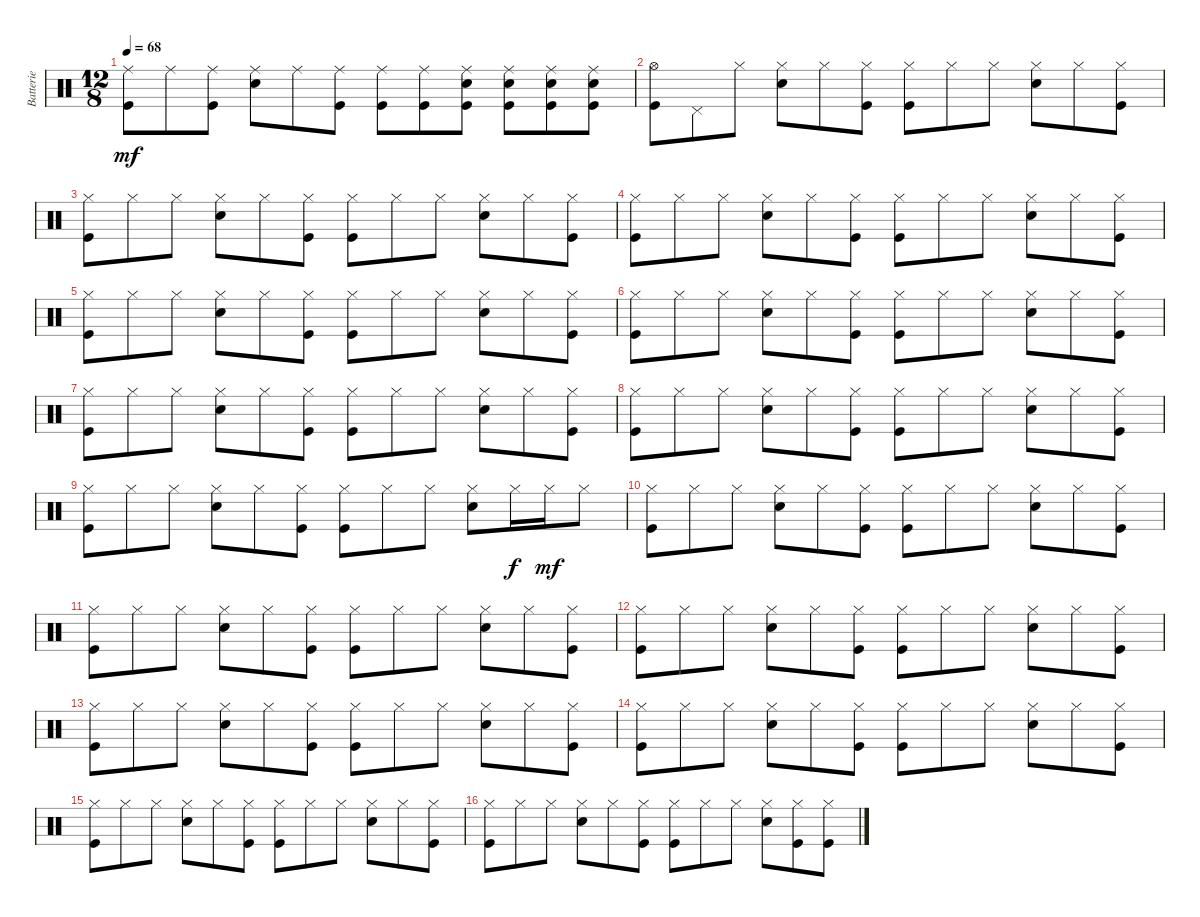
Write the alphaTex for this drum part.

\track ("Batterie" "Batterie") {instrument percussion}
\staff {score}
\articulation defaults
\ts (12 8)
\tempo 68
\clef neutral
\ks c
("Ride (middle)" "Kick (hit)").8{dy mf} "Ride (middle)".8 ("Ride (middle)" "Kick (hit)").8 ("Ride (middle)" "Snare (hit) 2").8 "Ride (middle)".8 ("Ride (middle)" "Kick (hit)").8 ("Ride (middle)" "Kick (hit)").8 ("Ride (middle)" "Kick (hit)").8 ("Ride (middle)" "Snare (hit) 2" "Kick (hit)").8 ("Ride (middle)" "Kick (hit)" "Snare (hit) 2").8 ("Ride (middle)" "Kick (hit)" "Snare (hit) 2").8 ("Ride (middle)" "Snare (hit) 2" "Kick (hit)").8 |
("Hi-Hat (open)" "Kick (hit)").8 "Pedal Hi-Hat (hit)".8 "Hi-Hat (closed)".8 ("Hi-Hat (closed)" "Snare (hit) 2").8 "Hi-Hat (closed)".8 ("Hi-Hat (closed)" "Kick (hit)").8 ("Hi-Hat (closed)" "Kick (hit)").8 "Hi-Hat (closed)".8 "Hi-Hat (closed)".8 ("Hi-Hat (closed)" "Snare (hit) 2").8 "Hi-Hat (closed)".8 ("Hi-Hat (closed)" "Kick (hit)").8 |
("Hi-Hat (closed)" "Kick (hit)").8 "Hi-Hat (closed)".8 "Hi-Hat (closed)".8 ("Hi-Hat (closed)" "Snare (hit) 2").8 "Hi-Hat (closed)".8 ("Hi-Hat (closed)" "Kick (hit)").8 ("Hi-Hat (closed)" "Kick (hit)").8 "Hi-Hat (closed)".8 "Hi-Hat (closed)".8 ("Hi-Hat (closed)" "Snare (hit) 2").8 "Hi-Hat (closed)".8 ("Hi-Hat (closed)" "Kick (hit)").8 |
("Hi-Hat (closed)" "Kick (hit)").8 "Hi-Hat (closed)".8 "Hi-Hat (closed)".8 ("Hi-Hat (closed)" "Snare (hit) 2").8 "Hi-Hat (closed)".8 ("Hi-Hat (closed)" "Kick (hit)").8 ("Hi-Hat (closed)" "Kick (hit)").8 "Hi-Hat (closed)".8 "Hi-Hat (closed)".8 ("Hi-Hat (closed)" "Snare (hit) 2").8 "Hi-Hat (closed)".8 ("Hi-Hat (closed)" "Kick (hit)").8 |
("Hi-Hat (closed)" "Kick (hit)").8 "Hi-Hat (closed)".8 "Hi-Hat (closed)".8 ("Hi-Hat (closed)" "Snare (hit) 2").8 "Hi-Hat (closed)".8 ("Hi-Hat (closed)" "Kick (hit)").8 ("Hi-Hat (closed)" "Kick (hit)").8 "Hi-Hat (closed)".8 "Hi-Hat (closed)".8 ("Hi-Hat (closed)" "Snare (hit) 2").8 "Hi-Hat (closed)".8 ("Hi-Hat (closed)" "Kick (hit)").8 |
("Hi-Hat (closed)" "Kick (hit)").8 "Hi-Hat (closed)".8 "Hi-Hat (closed)".8 ("Hi-Hat (closed)" "Snare (hit) 2").8 "Hi-Hat (closed)".8 ("Hi-Hat (closed)" "Kick (hit)").8 ("Hi-Hat (closed)" "Kick (hit)").8 "Hi-Hat (closed)".8 "Hi-Hat (closed)".8 ("Hi-Hat (closed)" "Snare (hit) 2").8 "Hi-Hat (closed)".8 ("Hi-Hat (closed)" "Kick (hit)").8 |
("Hi-Hat (closed)" "Kick (hit)").8 "Hi-Hat (closed)".8 "Hi-Hat (closed)".8 ("Hi-Hat (closed)" "Snare (hit) 2").8 "Hi-Hat (closed)".8 ("Hi-Hat (closed)" "Kick (hit)").8 ("Hi-Hat (closed)" "Kick (hit)").8 "Hi-Hat (closed)".8 "Hi-Hat (closed)".8 ("Hi-Hat (closed)" "Snare (hit) 2").8 "Hi-Hat (closed)".8 ("Hi-Hat (closed)" "Kick (hit)").8 |
("Hi-Hat (closed)" "Kick (hit)").8 "Hi-Hat (closed)".8 "Hi-Hat (closed)".8 ("Hi-Hat (closed)" "Snare (hit) 2").8 "Hi-Hat (closed)".8 ("Hi-Hat (closed)" "Kick (hit)").8 ("Hi-Hat (closed)" "Kick (hit)").8 "Hi-Hat (closed)".8 "Hi-Hat (closed)".8 ("Hi-Hat (closed)" "Snare (hit) 2").8 "Hi-Hat (closed)".8 ("Hi-Hat (closed)" "Kick (hit)").8 |
("Hi-Hat (closed)" "Kick (hit)").8 "Hi-Hat (closed)".8 "Hi-Hat (closed)".8 ("Hi-Hat (closed)" "Snare (hit) 2").8 "Hi-Hat (closed)".8 ("Hi-Hat (closed)" "Kick (hit)").8 ("Hi-Hat (closed)" "Kick (hit)").8 "Hi-Hat (closed)".8 "Hi-Hat (closed)".8 ("Hi-Hat (closed)" "Snare (hit) 2").8 "Hi-Hat (closed)".16{dy f} "Hi-Hat (closed)".16{dy mf} "Hi-Hat (closed)".8 |
("Hi-Hat (closed)" "Kick (hit)").8 "Hi-Hat (closed)".8 "Hi-Hat (closed)".8 ("Hi-Hat (closed)" "Snare (hit) 2").8 "Hi-Hat (closed)".8 ("Hi-Hat (closed)" "Kick (hit)").8 ("Hi-Hat (closed)" "Kick (hit)").8 "Hi-Hat (closed)".8 "Hi-Hat (closed)".8 ("Hi-Hat (closed)" "Snare (hit) 2").8 "Hi-Hat (closed)".8 ("Hi-Hat (closed)" "Kick (hit)").8 |
("Hi-Hat (closed)" "Kick (hit)").8 "Hi-Hat (closed)".8 "Hi-Hat (closed)".8 ("Hi-Hat (closed)" "Snare (hit) 2").8 "Hi-Hat (closed)".8 ("Hi-Hat (closed)" "Kick (hit)").8 ("Hi-Hat (closed)" "Kick (hit)").8 "Hi-Hat (closed)".8 "Hi-Hat (closed)".8 ("Hi-Hat (closed)" "Snare (hit) 2").8 "Hi-Hat (closed)".8 ("Hi-Hat (closed)" "Kick (hit)").8 |
("Hi-Hat (closed)" "Kick (hit)").8 "Hi-Hat (closed)".8 "Hi-Hat (closed)".8 ("Hi-Hat (closed)" "Snare (hit) 2").8 "Hi-Hat (closed)".8 ("Hi-Hat (closed)" "Kick (hit)").8 ("Hi-Hat (closed)" "Kick (hit)").8 "Hi-Hat (closed)".8 "Hi-Hat (closed)".8 ("Hi-Hat (closed)" "Snare (hit) 2").8 "Hi-Hat (closed)".8 ("Hi-Hat (closed)" "Kick (hit)").8 |
("Hi-Hat (closed)" "Kick (hit)").8 "Hi-Hat (closed)".8 "Hi-Hat (closed)".8 ("Hi-Hat (closed)" "Snare (hit) 2").8 "Hi-Hat (closed)".8 ("Hi-Hat (closed)" "Kick (hit)").8 ("Hi-Hat (closed)" "Kick (hit)").8 "Hi-Hat (closed)".8 "Hi-Hat (closed)".8 ("Hi-Hat (closed)" "Snare (hit) 2").8 "Hi-Hat (closed)".8 ("Hi-Hat (closed)" "Kick (hit)").8 |
("Hi-Hat (closed)" "Kick (hit)").8 "Hi-Hat (closed)".8 "Hi-Hat (closed)".8 ("Hi-Hat (closed)" "Snare (hit) 2").8 "Hi-Hat (closed)".8 ("Hi-Hat (closed)" "Kick (hit)").8 ("Hi-Hat (closed)" "Kick (hit)").8 "Hi-Hat (closed)".8 "Hi-Hat (closed)".8 ("Hi-Hat (closed)" "Snare (hit) 2").8 "Hi-Hat (closed)".8 ("Hi-Hat (closed)" "Kick (hit)").8 |
("Hi-Hat (closed)" "Kick (hit)").8 "Hi-Hat (closed)".8 "Hi-Hat (closed)".8 ("Hi-Hat (closed)" "Snare (hit) 2").8 "Hi-Hat (closed)".8 ("Hi-Hat (closed)" "Kick (hit)").8 ("Hi-Hat (closed)" "Kick (hit)").8 "Hi-Hat (closed)".8 "Hi-Hat (closed)".8 ("Hi-Hat (closed)" "Snare (hit) 2").8 "Hi-Hat (closed)".8 ("Hi-Hat (closed)" "Kick (hit)").8 |
("Hi-Hat (closed)" "Kick (hit)").8 "Hi-Hat (closed)".8 "Hi-Hat (closed)".8 ("Hi-Hat (closed)" "Snare (hit) 2").8 "Hi-Hat (closed)".8 ("Hi-Hat (closed)" "Kick (hit)").8 ("Hi-Hat (closed)" "Kick (hit)").8 "Hi-Hat (closed)".8 "Hi-Hat (closed)".8 ("Hi-Hat (closed)" "Snare (hit) 2").8 ("Hi-Hat (closed)" "Kick (hit)").8 ("Hi-Hat (closed)" "Kick (hit)").8
